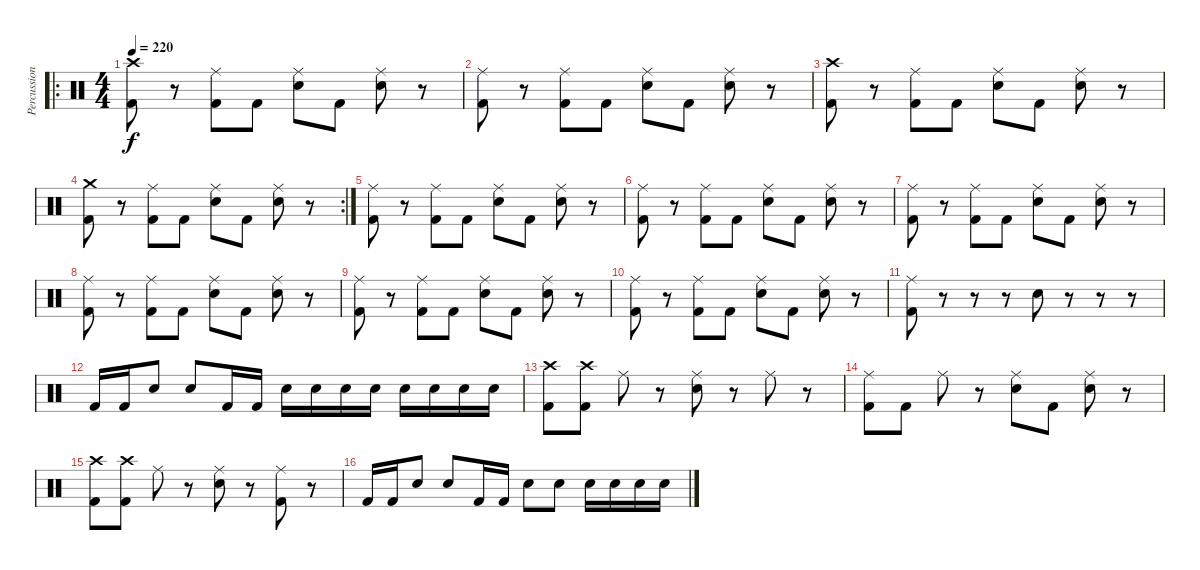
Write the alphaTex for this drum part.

\track ("Percussion" "Percussion") {instrument percussion}
\staff {score}
\articulation defaults
\ro
\ts (4 4)
\tempo 220
\clef neutral
\ks c
("Crash high (hit)" "Kick (hit) 2").8{dy f} r.8 ("Ride (middle)" "Kick (hit) 2").8 "Kick (hit) 2".8 ("Ride (middle)" "Electric Snare (hit)").8 "Kick (hit) 2".8 ("Ride (middle)" "Electric Snare (hit)").8 r.8 |
("Ride (middle)" "Kick (hit) 2").8 r.8 ("Ride (middle)" "Kick (hit) 2").8 "Kick (hit) 2".8 ("Ride (middle)" "Electric Snare (hit)").8 "Kick (hit) 2".8 ("Ride (middle)" "Electric Snare (hit)").8 r.8 |
("Crash high (hit)" "Kick (hit) 2").8 r.8 ("Ride (middle)" "Kick (hit) 2").8 "Kick (hit) 2".8 ("Ride (middle)" "Electric Snare (hit)").8 "Kick (hit) 2".8 ("Ride (middle)" "Electric Snare (hit)").8 r.8 |
\rc 2
("Crash medium (hit)" "Kick (hit) 2").8 r.8 ("Ride (middle)" "Kick (hit) 2").8 "Kick (hit) 2".8 ("Ride (middle)" "Electric Snare (hit)").8 "Kick (hit) 2".8 ("Ride (middle)" "Electric Snare (hit)").8 r.8 |
("Ride (middle)" "Kick (hit) 2").8 r.8 ("Ride (middle)" "Kick (hit) 2").8 "Kick (hit) 2".8 ("Ride (middle)" "Electric Snare (hit)").8 "Kick (hit) 2".8 ("Ride (middle)" "Electric Snare (hit)").8 r.8 |
("Ride (middle)" "Kick (hit) 2").8 r.8 ("Ride (middle)" "Kick (hit) 2").8 "Kick (hit) 2".8 ("Ride (middle)" "Electric Snare (hit)").8 "Kick (hit) 2".8 ("Ride (middle)" "Electric Snare (hit)").8 r.8 |
("Ride (middle)" "Kick (hit) 2").8 r.8 ("Ride (middle)" "Kick (hit) 2").8 "Kick (hit) 2".8 ("Ride (middle)" "Electric Snare (hit)").8 "Kick (hit) 2".8 ("Ride (middle)" "Electric Snare (hit)").8 r.8 |
("Ride (middle)" "Kick (hit) 2").8 r.8 ("Ride (middle)" "Kick (hit) 2").8 "Kick (hit) 2".8 ("Ride (middle)" "Electric Snare (hit)").8 "Kick (hit) 2".8 ("Ride (middle)" "Electric Snare (hit)").8 r.8 |
("Ride (middle)" "Kick (hit) 2").8 r.8 ("Ride (middle)" "Kick (hit) 2").8 "Kick (hit) 2".8 ("Ride (middle)" "Electric Snare (hit)").8 "Kick (hit) 2".8 ("Ride (middle)" "Electric Snare (hit)").8 r.8 |
("Ride (middle)" "Kick (hit) 2").8 r.8 ("Ride (middle)" "Kick (hit) 2").8 "Kick (hit) 2".8 ("Ride (middle)" "Electric Snare (hit)").8 "Kick (hit) 2".8 ("Ride (middle)" "Electric Snare (hit)").8 r.8 |
("Ride (middle)" "Kick (hit) 2").8 r.8 r.8 r.8 "Electric Snare (hit)".8 r.8 r.8 r.8 |
"Kick (hit) 2".16 "Kick (hit) 2".16 "Electric Snare (hit)".8 "Electric Snare (hit)".8 "Kick (hit) 2".16 "Kick (hit) 2".16 "Electric Snare (hit)".16 "Electric Snare (hit)".16 "Electric Snare (hit)".16 "Electric Snare (hit)".16 "Electric Snare (hit)".16 "Electric Snare (hit)".16 "Electric Snare (hit)".16 "Electric Snare (hit)".16 |
("Crash high (hit)" "Kick (hit) 2").8 ("Crash high (hit)" "Kick (hit) 2").8 "Ride (middle)".8 r.8 ("Ride (middle)" "Electric Snare (hit)").8 r.8 "Ride (middle)".8 r.8 |
("Ride (middle)" "Kick (hit) 2").8 "Kick (hit) 2".8 "Ride (middle)".8 r.8 ("Ride (middle)" "Electric Snare (hit)").8 "Kick (hit) 2".8 ("Ride (middle)" "Electric Snare (hit)").8 r.8 |
("Crash high (hit)" "Kick (hit) 2").8 ("Crash high (hit)" "Kick (hit) 2").8 "Ride (middle)".8 r.8 ("Ride (middle)" "Electric Snare (hit)").8 r.8 ("Ride (middle)" "Kick (hit) 2").8 r.8 |
"Kick (hit) 2".16 "Kick (hit) 2".16 "Electric Snare (hit)".8 "Electric Snare (hit)".8 "Kick (hit) 2".16 "Kick (hit) 2".16 "Electric Snare (hit)".8 "Electric Snare (hit)".8 "Electric Snare (hit)".16 "Electric Snare (hit)".16 "Electric Snare (hit)".16 "Electric Snare (hit)".16
